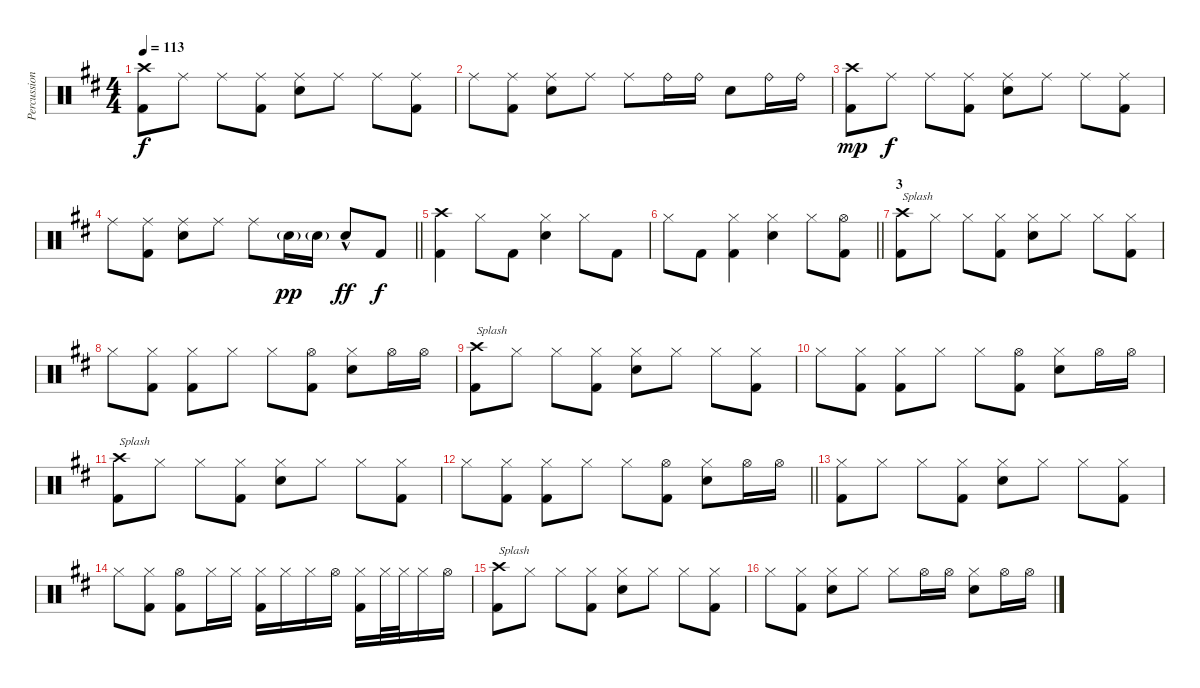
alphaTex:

\track ("Percussion" "Percussion") {instrument percussion}
\staff {score}
\articulation defaults
\ts (4 4)
\section ("" "")
\tempo 113
\clef neutral
\ks bminor
("Crash high (hit)" "Kick (hit) 2").8{dy f} "Ride (middle)".8 "Ride (middle)".8 ("Ride (middle)" "Kick (hit) 2").8 ("Ride (middle)" "Snare (hit) 2").8 "Ride (middle)".8 "Ride (middle)".8 ("Ride (middle)" "Kick (hit) 2").8 |
"Ride (middle)".8 ("Ride (middle)" "Kick (hit) 2").8 ("Ride (middle)" "Snare (hit) 2").8 "Ride (middle)".8 "Ride (middle)".8 "Ride (bell)".16 "Ride (bell)".16 "Snare (hit) 2".8 "Ride (bell)".16 "Ride (bell)".16 |
("Crash high (hit)" "Kick (hit) 2").8{dy mp} "Ride (middle)".8{dy f} "Ride (middle)".8 ("Ride (middle)" "Kick (hit) 2").8 ("Ride (middle)" "Snare (hit) 2").8 "Ride (middle)".8 "Ride (middle)".8 ("Ride (middle)" "Kick (hit) 2").8 |
\barLineRight lightlight "Ride (middle)".8
("Ride (middle)" "Kick (hit) 2").8 ("Ride (middle)" "Snare (hit) 2").8 "Ride (middle)".8 "Ride (middle)".8 "Snare (hit) 2"{g}.16{dy pp} "Snare (hit) 2"{g}.16 "Snare (hit) 2"{hac}.8{dy ff} "Kick (hit) 2".8{dy f} |
\section ("" "")
("Crash high (hit)" "Kick (hit) 2").4 "Hi-Hat (closed)".8 "Kick (hit) 2".8 ("Hi-Hat (closed)" "Snare (hit) 2").4 "Hi-Hat (closed)".8 "Kick (hit) 2".8 |
\barLineRight lightlight "Hi-Hat (closed)".8 "Kick (hit) 2".8
("Hi-Hat (closed)" "Kick (hit) 2").4 ("Hi-Hat (closed)" "Snare (hit) 2").4 "Hi-Hat (closed)".8 ("Hi-Hat (open)" "Kick (hit) 2").8 |
\section ("" "3")
("Crash high (hit)" "Kick (hit) 2").8{txt "Splash"} "Hi-Hat (closed)".8 "Hi-Hat (closed)".8 ("Hi-Hat (closed)" "Kick (hit) 2").8 ("Hi-Hat (closed)" "Snare (hit) 2").8 "Hi-Hat (closed)".8 "Hi-Hat (closed)".8 ("Hi-Hat (closed)" "Kick (hit) 2").8 |
"Hi-Hat (closed)".8 ("Hi-Hat (closed)" "Kick (hit) 2").8 ("Hi-Hat (closed)" "Kick (hit) 2").8 "Hi-Hat (closed)".8 "Hi-Hat (closed)".8 ("Hi-Hat (open)" "Kick (hit) 2").8 ("Hi-Hat (closed)" "Snare (hit) 2").8 "Hi-Hat (open)".16 "Hi-Hat (open)".16 |
("Crash high (hit)" "Kick (hit) 2").8{txt "Splash"} "Hi-Hat (closed)".8 "Hi-Hat (closed)".8 ("Hi-Hat (closed)" "Kick (hit) 2").8 ("Hi-Hat (closed)" "Snare (hit) 2").8 "Hi-Hat (closed)".8 "Hi-Hat (closed)".8 ("Hi-Hat (closed)" "Kick (hit) 2").8 |
"Hi-Hat (closed)".8 ("Hi-Hat (closed)" "Kick (hit) 2").8 ("Hi-Hat (closed)" "Kick (hit) 2").8 "Hi-Hat (closed)".8 "Hi-Hat (closed)".8 ("Hi-Hat (open)" "Kick (hit) 2").8 ("Hi-Hat (closed)" "Snare (hit) 2").8 "Hi-Hat (open)".16 "Hi-Hat (open)".16 |
("Crash high (hit)" "Kick (hit) 2").8{txt "Splash"} "Hi-Hat (closed)".8 "Hi-Hat (closed)".8 ("Hi-Hat (closed)" "Kick (hit) 2").8 ("Hi-Hat (closed)" "Snare (hit) 2").8 "Hi-Hat (closed)".8 "Hi-Hat (closed)".8 ("Hi-Hat (closed)" "Kick (hit) 2").8 |
\barLineRight lightlight "Hi-Hat (closed)".8
("Hi-Hat (closed)" "Kick (hit) 2").8 ("Hi-Hat (closed)" "Kick (hit) 2").8 "Hi-Hat (closed)".8 "Hi-Hat (closed)".8 ("Hi-Hat (open)" "Kick (hit) 2").8 ("Hi-Hat (closed)" "Snare (hit) 2").8 "Hi-Hat (open)".16 "Hi-Hat (open)".16 |
\section ("" "")
("Hi-Hat (closed)" "Kick (hit) 2").8 "Hi-Hat (closed)".8 "Hi-Hat (closed)".8 ("Hi-Hat (closed)" "Kick (hit) 2").8 ("Hi-Hat (closed)" "Snare (hit) 2").8 "Hi-Hat (closed)".8 "Hi-Hat (closed)".8 ("Hi-Hat (closed)" "Kick (hit) 2").8 |
"Hi-Hat (closed)".8 ("Hi-Hat (closed)" "Kick (hit) 2").8 ("Hi-Hat (open)" "Kick (hit) 2").8 "Hi-Hat (closed)".16 "Hi-Hat (closed)".16 ("Hi-Hat (closed)" "Kick (hit) 2").16 "Hi-Hat (closed)".16 "Hi-Hat (closed)".16 "Hi-Hat (open)".16 ("Hi-Hat (closed)" "Kick (hit) 2").16 "Hi-Hat (closed)".32 "Hi-Hat (closed)".32 "Hi-Hat (closed)".16 "Hi-Hat (open)".16 |
("Crash high (hit)" "Kick (hit) 2").8{txt "Splash"} "Hi-Hat (closed)".8 "Hi-Hat (closed)".8 ("Hi-Hat (closed)" "Kick (hit) 2").8 ("Hi-Hat (closed)" "Snare (hit) 2").8 "Hi-Hat (closed)".8 "Hi-Hat (closed)".8 ("Hi-Hat (closed)" "Kick (hit) 2").8 |
"Hi-Hat (closed)".8 ("Hi-Hat (closed)" "Kick (hit) 2").8 ("Hi-Hat (closed)" "Snare (hit) 2").8 "Hi-Hat (closed)".8 "Hi-Hat (closed)".8 "Hi-Hat (open)".16 "Hi-Hat (open)".16 ("Hi-Hat (closed)" "Snare (hit) 2").8 "Hi-Hat (open)".16 "Hi-Hat (open)".16
